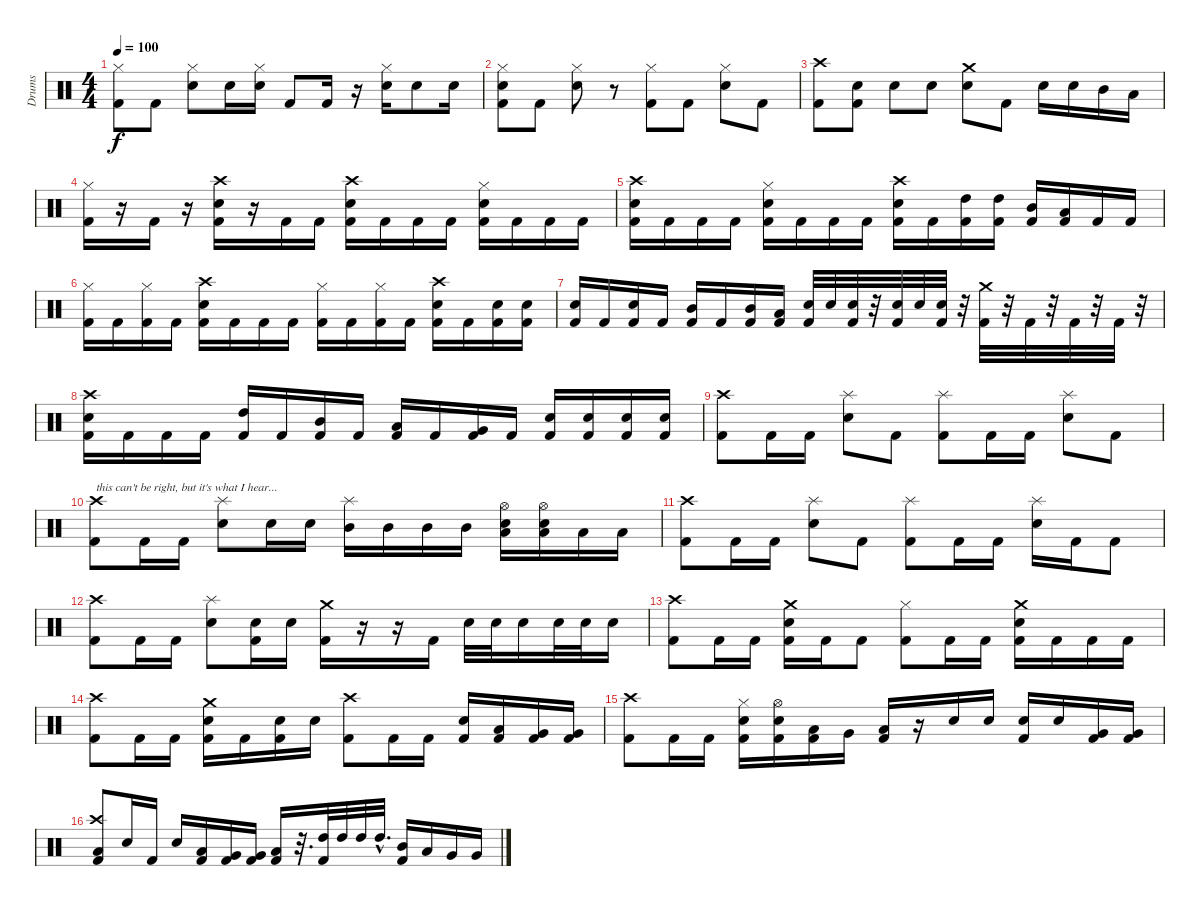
\track ("Drums" "Drums") {instrument percussion}
\staff {score}
\articulation defaults
\ts (4 4)
\tempo 100
\clef neutral
\ks c
("Hi-Hat (closed)" "Kick (hit) 2").8{dy f} "Kick (hit) 2".8 ("Hi-Hat (closed)" "Snare (hit) 2").8 "Snare (hit) 2".16 ("Hi-Hat (closed)" "Snare (hit) 2").16 "Kick (hit) 2".8 "Kick (hit) 2".16 r.16 ("Hi-Hat (closed)" "Snare (hit) 2").16 "Snare (hit) 2".8 "Snare (hit) 2".16 |
("Hi-Hat (closed)" "Snare (hit) 2" "Kick (hit) 2").8 "Kick (hit) 2".8 ("Hi-Hat (closed)" "Snare (hit) 2").8 r.8 ("Hi-Hat (closed)" "Kick (hit) 2").8 "Kick (hit) 2".8 ("Hi-Hat (closed)" "Snare (hit) 2").8 "Kick (hit) 2".8 |
("Crash high (hit)" "Kick (hit) 2").8 ("Snare (hit) 2" "Kick (hit) 2").8 "Snare (hit) 2".8 "Snare (hit) 2".8 ("Crash medium (hit)" "Snare (hit) 2").8 "Kick (hit) 2".8 "Snare (hit) 2".16 "Snare (hit) 2".16 "Mid Tom (hit)".16 "Low Tom (hit)".16 |
("Hi-Hat (closed)" "Kick (hit) 2").16 r.16 "Kick (hit) 2".16 r.16 ("Crash high (hit)" "Snare (hit) 2" "Kick (hit) 2").16 r.16 "Kick (hit) 2".16 "Kick (hit) 2".16 ("Crash high (hit)" "Snare (hit) 2" "Kick (hit) 2").16 "Kick (hit) 2".16 "Kick (hit) 2".16 "Kick (hit) 2".16 ("Hi-Hat (closed)" "Snare (hit) 2" "Kick (hit) 2").16 "Kick (hit) 2".16 "Kick (hit) 2".16 "Kick (hit) 2".16 |
("Crash high (hit)" "Snare (hit) 2" "Kick (hit) 2").16 "Kick (hit) 2".16 "Kick (hit) 2".16 "Kick (hit) 2".16 ("Hi-Hat (closed)" "Snare (hit) 2" "Kick (hit) 2").16 "Kick (hit) 2".16 "Kick (hit) 2".16 "Kick (hit) 2".16 ("Crash high (hit)" "Snare (hit) 2" "Kick (hit) 2").16 "Kick (hit) 2".16 ("High Tom (hit)" "Kick (hit) 2").16 ("High Tom (hit)" "Kick (hit) 2").16 ("Mid Tom (hit)" "Kick (hit) 2").16 ("Low Tom (hit)" "Kick (hit) 2").16 "Kick (hit) 2".16 "Kick (hit) 2".16 |
("Hi-Hat (closed)" "Kick (hit) 2").16 "Kick (hit) 2".16 ("Hi-Hat (closed)" "Kick (hit) 2").16 "Kick (hit) 2".16 ("Crash high (hit)" "Snare (hit) 2" "Kick (hit) 2").16 "Kick (hit) 2".16 "Kick (hit) 2".16 "Kick (hit) 2".16 ("Hi-Hat (closed)" "Kick (hit) 2").16 "Kick (hit) 2".16 ("Hi-Hat (closed)" "Kick (hit) 2").16 "Kick (hit) 2".16 ("Crash high (hit)" "Snare (hit) 2" "Kick (hit) 2").16 "Kick (hit) 2".16 ("Snare (hit) 2" "Kick (hit) 2").16 ("Snare (hit) 2" "Kick (hit) 2").16 |
("Snare (hit) 2" "Kick (hit) 2").16 "Kick (hit) 2".16 ("Snare (hit) 2" "Kick (hit) 2").16 "Kick (hit) 2".16 ("Mid Tom (hit)" "Kick (hit) 2").16 "Kick (hit) 2".16 ("Mid Tom (hit)" "Kick (hit) 2").16 ("Low Tom (hit)" "Kick (hit) 2").16 ("Snare (hit) 2" "Kick (hit) 2").32 "Snare (hit) 2".32 ("Snare (hit) 2" "Kick (hit) 2").32 r.32 ("Snare (hit) 2" "Kick (hit) 2").32 "Snare (hit) 2".32 ("Snare (hit) 2" "Kick (hit) 2").32 r.32 ("Crash medium (hit)" "Kick (hit) 2").32 r.32 "Kick (hit) 2".32 r.32 "Kick (hit) 2".32 r.32 "Kick (hit) 2".32 r.32 |
("Crash high (hit)" "Snare (hit) 2" "Kick (hit) 2").16 "Kick (hit) 2".16 "Kick (hit) 2".16 "Kick (hit) 2".16 ("High Tom (hit)" "Kick (hit) 2").16 "Kick (hit) 2".16 ("Mid Tom (hit)" "Kick (hit) 2").16 "Kick (hit) 2".16 ("Low Tom (hit)" "Kick (hit) 2").16 "Kick (hit) 2".16 ("Very Low Tom (hit)" "Kick (hit) 2").16 "Kick (hit) 2".16 ("Snare (hit) 2" "Kick (hit) 2").16 ("Snare (hit) 2" "Kick (hit) 2").16 ("Snare (hit) 2" "Kick (hit) 2").16 ("Snare (hit) 2" "Kick (hit) 2").16 |
\section ("" "")
("Crash high (hit)" "Kick (hit) 2").8 "Kick (hit) 2".16 "Kick (hit) 2".16 ("Splash (hit)" "Snare (hit) 2").8 "Kick (hit) 2".8 ("Splash (hit)" "Kick (hit) 2").8 "Kick (hit) 2".16 "Kick (hit) 2".16 ("Splash (hit)" "Snare (hit) 2").8 "Kick (hit) 2".8 |
("Crash high (hit)" "Kick (hit) 2").8{txt "this can't be right, but it's what I hear..."} "Kick (hit) 2".16 "Kick (hit) 2".16 ("Splash (hit)" "Snare (hit) 2").8 "Snare (hit) 2".16 "Snare (hit) 2".16 ("Splash (hit)" "Mid Tom (hit)").16 "Mid Tom (hit)".16 "Mid Tom (hit)".16 "Mid Tom (hit)".16 ("Hi-Hat (open)" "Snare (hit) 2" "Low Tom (hit)").16 ("Hi-Hat (open)" "Snare (hit) 2" "Low Tom (hit)").16 "Low Tom (hit)".16 "Low Tom (hit)".16 |
("Crash high (hit)" "Kick (hit) 2").8 "Kick (hit) 2".16 "Kick (hit) 2".16 ("Splash (hit)" "Snare (hit) 2").8 "Kick (hit) 2".8 ("Splash (hit)" "Kick (hit) 2").8 "Kick (hit) 2".16 "Kick (hit) 2".16 ("Splash (hit)" "Snare (hit) 2").16 "Kick (hit) 2".16 "Kick (hit) 2".8 |
("Crash high (hit)" "Kick (hit) 2").8 "Kick (hit) 2".16 "Kick (hit) 2".16 ("Splash (hit)" "Snare (hit) 2").8 ("Snare (hit) 2" "Kick (hit) 2").16 "Snare (hit) 2".16 ("Crash medium (hit)" "Kick (hit) 2").16 r.16 r.16 "Kick (hit) 2".16 "Snare (hit) 2".32 "Snare (hit) 2".32 "Snare (hit) 2".16 "Snare (hit) 2".32 "Snare (hit) 2".32 "Snare (hit) 2".16 |
("Crash high (hit)" "Kick (hit) 2").8 "Kick (hit) 2".16 "Kick (hit) 2".16 ("Crash medium (hit)" "Snare (hit) 2" "Kick (hit) 2").16 "Kick (hit) 2".16 "Kick (hit) 2".8 ("Hi-Hat (closed)" "Kick (hit) 2").8 "Kick (hit) 2".16 "Kick (hit) 2".16 ("Crash medium (hit)" "Snare (hit) 2" "Kick (hit) 2").16 "Kick (hit) 2".16 "Kick (hit) 2".16 "Kick (hit) 2".16 |
("Crash high (hit)" "Kick (hit) 2").8 "Kick (hit) 2".16 "Kick (hit) 2".16 ("Crash medium (hit)" "Snare (hit) 2" "Kick (hit) 2").16 "Kick (hit) 2".16 ("Snare (hit) 2" "Kick (hit) 2").16 "Snare (hit) 2".16 ("Crash high (hit)" "Kick (hit) 2").8 "Kick (hit) 2".16 "Kick (hit) 2".16 ("Snare (hit) 2" "Kick (hit) 2").16 ("Low Tom (hit)" "Kick (hit) 2").16 ("Very Low Tom (hit)" "Kick (hit) 2").16 ("Very Low Tom (hit)" "Kick (hit) 2").16 |
("Crash high (hit)" "Kick (hit) 2").8 "Kick (hit) 2".16 "Kick (hit) 2".16 ("Hi-Hat (closed)" "Snare (hit) 2" "Kick (hit) 2").16 ("Hi-Hat (open)" "Snare (hit) 2" "Kick (hit) 2").16 ("Low Tom (hit)" "Kick (hit) 2").16 "Very Low Tom (hit)".16 ("Low Floor Tom (hit)" "Kick (hit) 2").16 r.16 "Snare (hit) 2".16 "Snare (hit) 2".16 ("Snare (hit) 2" "Kick (hit) 2").16 "Snare (hit) 2".16 ("Very Low Tom (hit)" "Kick (hit) 2").16 ("Very Low Tom (hit)" "Kick (hit) 2").16 |
("Crash high (hit)" "Low Floor Tom (hit)" "Kick (hit) 2").8 "Snare (hit) 2".16 "Kick (hit) 2".16 "Snare (hit) 2".16 ("Low Tom (hit)" "Kick (hit) 2").16 ("Very Low Tom (hit)" "Kick (hit) 2").16 ("Very Low Tom (hit)" "Kick (hit) 2").16 ("Low Floor Tom (hit)" "Kick (hit) 2").16 r.32{d} ("High Tom (hit)" "Kick (hit) 2").32 "High Tom (hit)".32 "High Tom (hit)".32 "High Tom (hit)"{hac}.32{d} ("Mid Tom (hit)" "Kick (hit) 2").16 "Low Tom (hit)".16 "Very Low Tom (hit)".16 "Very Low Tom (hit)".16
